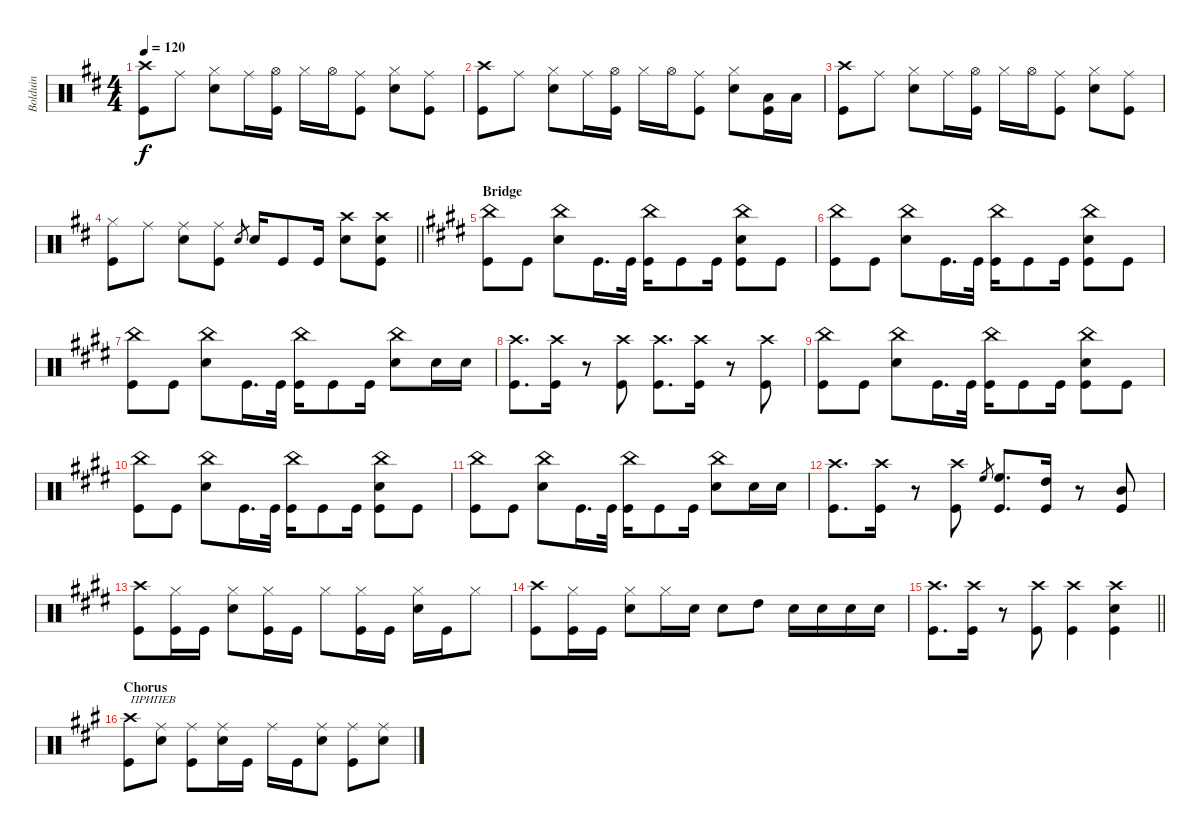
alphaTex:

\track ("Bolduin" "Bolduin") {instrument percussion}
\staff {score}
\articulation defaults
\ts (4 4)
\tempo 120
\clef neutral
\ks bminor
("Crash high (hit)" "Kick (hit)").8{dy f} "Ride (middle)".8 ("Hi-Hat (closed)" "Snare (hit) 2").8 "Ride (middle)".16 ("Hi-Hat (open)" "Kick (hit)").16 "Hi-Hat (closed)".16 "Hi-Hat (open)".16 ("Ride (middle)" "Kick (hit)").8 ("Hi-Hat (closed)" "Snare (hit) 2").8 ("Ride (middle)" "Kick (hit)").8 |
("Crash high (hit)" "Kick (hit)").8 "Ride (middle)".8 ("Hi-Hat (closed)" "Snare (hit) 2").8 "Ride (middle)".16 ("Hi-Hat (open)" "Kick (hit)").16 "Hi-Hat (closed)".16 "Hi-Hat (open)".16 ("Ride (middle)" "Kick (hit)").8 ("Hi-Hat (closed)" "Snare (hit) 2").8 ("Low Tom (hit)" "Kick (hit)").16 "Low Tom (hit)".16 |
("Crash high (hit)" "Kick (hit)").8 "Ride (middle)".8 ("Hi-Hat (closed)" "Snare (hit) 2").8 "Ride (middle)".16 ("Hi-Hat (open)" "Kick (hit)").16 "Hi-Hat (closed)".16 "Hi-Hat (open)".16 ("Ride (middle)" "Kick (hit)").8 ("Hi-Hat (closed)" "Snare (hit) 2").8 ("Ride (middle)" "Kick (hit)").8 |
\barLineRight lightlight
("Kick (hit)" "Hi-Hat (closed)").8 "Ride (middle)".8 ("Ride (middle)" "Snare (hit) 2").8 ("Kick (hit)" "Ride (middle)").8 "Snare (hit) 2".8{gr} "Snare (hit) 2".16 "Kick (hit)".8 "Kick (hit)".16 ("Snare (hit) 2" "Crash high (hit)").8 ("Kick (hit)" "Crash high (hit)" "Snare (hit) 2").8 |
\section ("" "Bridge")
\ks c#minor
("Kick (hit)" "China (hit)").8 "Kick (hit)".8 ("Snare (hit) 2" "China (hit)").8 "Kick (hit)".16{d} "Kick (hit)".32 ("Kick (hit)" "China (hit)").16 "Kick (hit)".8 "Kick (hit)".16 ("China (hit)" "Kick (hit)" "Snare (hit) 2").8 "Kick (hit)".8 |
("Kick (hit)" "China (hit)").8 "Kick (hit)".8 ("Snare (hit) 2" "China (hit)").8 "Kick (hit)".16{d} "Kick (hit)".32 ("Kick (hit)" "China (hit)").16 "Kick (hit)".8 "Kick (hit)".16 ("China (hit)" "Kick (hit)" "Snare (hit) 2").8 "Kick (hit)".8 |
("Kick (hit)" "China (hit)").8 "Kick (hit)".8 ("Snare (hit) 2" "China (hit)").8 "Kick (hit)".16{d} "Kick (hit)".32 ("Kick (hit)" "China (hit)").16 "Kick (hit)".8 "Kick (hit)".16 ("Snare (hit) 2" "China (hit)").8 "Snare (hit) 2".16 "Snare (hit) 2".16 |
("Kick (hit)" "Crash high (hit)").8{d} ("Crash high (hit)" "Kick (hit)").16 r.8 ("Kick (hit)" "Crash high (hit)").8 ("Kick (hit)" "Crash high (hit)").8{d} ("Kick (hit)" "Crash high (hit)").16 r.8 ("Kick (hit)" "Crash high (hit)").8 |
("Kick (hit)" "China (hit)").8 "Kick (hit)".8 ("Snare (hit) 2" "China (hit)").8 "Kick (hit)".16{d} "Kick (hit)".32 ("Kick (hit)" "China (hit)").16 "Kick (hit)".8 "Kick (hit)".16 ("China (hit)" "Kick (hit)" "Snare (hit) 2").8 "Kick (hit)".8 |
("Kick (hit)" "China (hit)").8 "Kick (hit)".8 ("Snare (hit) 2" "China (hit)").8 "Kick (hit)".16{d} "Kick (hit)".32 ("Kick (hit)" "China (hit)").16 "Kick (hit)".8 "Kick (hit)".16 ("China (hit)" "Kick (hit)" "Snare (hit) 2").8 "Kick (hit)".8 |
("Kick (hit)" "China (hit)").8 "Kick (hit)".8 ("Snare (hit) 2" "China (hit)").8 "Kick (hit)".16{d} "Kick (hit)".32 ("Kick (hit)" "China (hit)").16 "Kick (hit)".8 "Kick (hit)".16 ("Snare (hit) 2" "China (hit)").8 "Snare (hit) 2".16 "Snare (hit) 2".16 |
("Kick (hit)" "Crash high (hit)").8{d} ("Crash high (hit)" "Kick (hit)").16 r.8 ("Kick (hit)" "Crash high (hit)").8 "High Floor Tom (hit)".8{gr} ("Kick (hit)" "High Floor Tom (hit)").8{d} ("Kick (hit)" "High Tom (hit)").16 r.8 ("Kick (hit)" "Mid Tom (hit)").8 |
("Kick (hit)" "Crash high (hit)").8 ("Kick (hit)" "Hi-Hat (closed)").16 "Kick (hit)".16 ("Snare (hit) 2" "Hi-Hat (closed)").8 ("Kick (hit)" "Hi-Hat (closed)").16 "Kick (hit)".16 "Hi-Hat (closed)".8 ("Kick (hit)" "Hi-Hat (closed)").16 "Kick (hit)".16 ("Snare (hit) 2" "Hi-Hat (closed)").16 "Kick (hit)".16 "Hi-Hat (closed)".8 |
("Kick (hit)" "Crash high (hit)").8 ("Kick (hit)" "Hi-Hat (closed)").16 "Kick (hit)".16 ("Snare (hit) 2" "Hi-Hat (closed)").8 "Hi-Hat (closed)".16 "Snare (hit) 2".16 "Snare (hit) 2".8 "High Tom (hit)".8 "Snare (hit) 2".16 "Snare (hit) 2".16 "Snare (hit) 2".16 "Snare (hit) 2".16 |
\barLineRight lightlight
("Crash high (hit)" "Kick (hit)").8{d} ("Kick (hit)" "Crash high (hit)").16 r.8 ("Kick (hit)" "Crash high (hit)").8 ("Kick (hit)" "Crash high (hit)").4 ("Kick (hit)" "Crash high (hit)" "Snare (hit) 2").4 |
\section ("" "Chorus")
\ks f#minor
("Kick (hit)" "Crash high (hit)").8{txt "ПРИПЕВ"} ("Snare (hit) 2" "Ride (middle)").8 ("Kick (hit)" "Ride (middle)").8 ("Snare (hit) 2" "Ride (middle)").16 "Kick (hit)".16 "Ride (middle)".16 "Kick (hit)".16 ("Snare (hit) 2" "Ride (middle)").8 ("Kick (hit)" "Ride (middle)").8 ("Snare (hit) 2" "Ride (middle)").8
